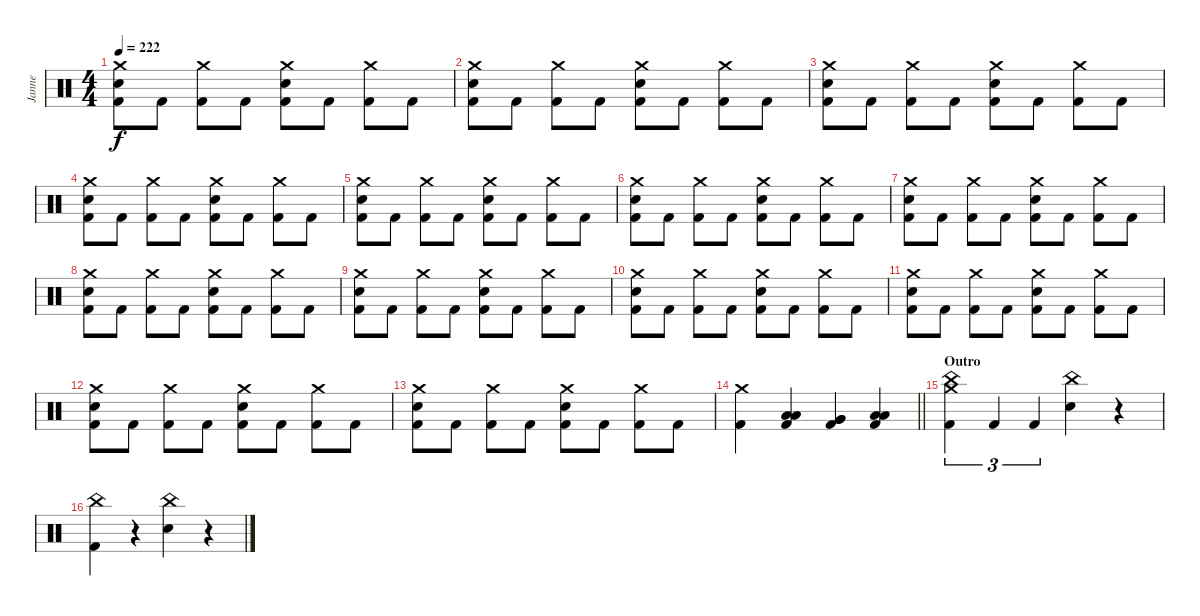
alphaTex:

\track ("Janne" "Janne") {instrument percussion}
\staff {score}
\articulation defaults
\ts (4 4)
\tempo 222
\clef neutral
\ks c
("Crash medium (hit)" "Electric Snare (hit)" "Kick (hit) 2").8{dy f} "Kick (hit) 2".8 ("Crash medium (hit)" "Kick (hit) 2").8 "Kick (hit) 2".8 ("Crash medium (hit)" "Electric Snare (hit)" "Kick (hit) 2").8 "Kick (hit) 2".8 ("Crash medium (hit)" "Kick (hit) 2").8 "Kick (hit) 2".8 |
("Crash medium (hit)" "Electric Snare (hit)" "Kick (hit) 2").8 "Kick (hit) 2".8 ("Crash medium (hit)" "Kick (hit) 2").8 "Kick (hit) 2".8 ("Crash medium (hit)" "Electric Snare (hit)" "Kick (hit) 2").8 "Kick (hit) 2".8 ("Crash medium (hit)" "Kick (hit) 2").8 "Kick (hit) 2".8 |
("Crash medium (hit)" "Electric Snare (hit)" "Kick (hit) 2").8 "Kick (hit) 2".8 ("Crash medium (hit)" "Kick (hit) 2").8 "Kick (hit) 2".8 ("Crash medium (hit)" "Electric Snare (hit)" "Kick (hit) 2").8 "Kick (hit) 2".8 ("Crash medium (hit)" "Kick (hit) 2").8 "Kick (hit) 2".8 |
("Crash medium (hit)" "Electric Snare (hit)" "Kick (hit) 2").8 "Kick (hit) 2".8 ("Crash medium (hit)" "Kick (hit) 2").8 "Kick (hit) 2".8 ("Crash medium (hit)" "Electric Snare (hit)" "Kick (hit) 2").8 "Kick (hit) 2".8 ("Crash medium (hit)" "Kick (hit) 2").8 "Kick (hit) 2".8 |
("Crash medium (hit)" "Electric Snare (hit)" "Kick (hit) 2").8 "Kick (hit) 2".8 ("Crash medium (hit)" "Kick (hit) 2").8 "Kick (hit) 2".8 ("Crash medium (hit)" "Electric Snare (hit)" "Kick (hit) 2").8 "Kick (hit) 2".8 ("Crash medium (hit)" "Kick (hit) 2").8 "Kick (hit) 2".8 |
("Crash medium (hit)" "Electric Snare (hit)" "Kick (hit) 2").8 "Kick (hit) 2".8 ("Crash medium (hit)" "Kick (hit) 2").8 "Kick (hit) 2".8 ("Crash medium (hit)" "Electric Snare (hit)" "Kick (hit) 2").8 "Kick (hit) 2".8 ("Crash medium (hit)" "Kick (hit) 2").8 "Kick (hit) 2".8 |
("Crash medium (hit)" "Electric Snare (hit)" "Kick (hit) 2").8 "Kick (hit) 2".8 ("Crash medium (hit)" "Kick (hit) 2").8 "Kick (hit) 2".8 ("Crash medium (hit)" "Electric Snare (hit)" "Kick (hit) 2").8 "Kick (hit) 2".8 ("Crash medium (hit)" "Kick (hit) 2").8 "Kick (hit) 2".8 |
("Crash medium (hit)" "Electric Snare (hit)" "Kick (hit) 2").8 "Kick (hit) 2".8 ("Crash medium (hit)" "Kick (hit) 2").8 "Kick (hit) 2".8 ("Crash medium (hit)" "Electric Snare (hit)" "Kick (hit) 2").8 "Kick (hit) 2".8 ("Crash medium (hit)" "Kick (hit) 2").8 "Kick (hit) 2".8 |
("Crash medium (hit)" "Electric Snare (hit)" "Kick (hit) 2").8 "Kick (hit) 2".8 ("Crash medium (hit)" "Kick (hit) 2").8 "Kick (hit) 2".8 ("Crash medium (hit)" "Electric Snare (hit)" "Kick (hit) 2").8 "Kick (hit) 2".8 ("Crash medium (hit)" "Kick (hit) 2").8 "Kick (hit) 2".8 |
("Crash medium (hit)" "Electric Snare (hit)" "Kick (hit) 2").8 "Kick (hit) 2".8 ("Crash medium (hit)" "Kick (hit) 2").8 "Kick (hit) 2".8 ("Crash medium (hit)" "Electric Snare (hit)" "Kick (hit) 2").8 "Kick (hit) 2".8 ("Crash medium (hit)" "Kick (hit) 2").8 "Kick (hit) 2".8 |
("Crash medium (hit)" "Electric Snare (hit)" "Kick (hit) 2").8 "Kick (hit) 2".8 ("Crash medium (hit)" "Kick (hit) 2").8 "Kick (hit) 2".8 ("Crash medium (hit)" "Electric Snare (hit)" "Kick (hit) 2").8 "Kick (hit) 2".8 ("Crash medium (hit)" "Kick (hit) 2").8 "Kick (hit) 2".8 |
("Crash medium (hit)" "Electric Snare (hit)" "Kick (hit) 2").8 "Kick (hit) 2".8 ("Crash medium (hit)" "Kick (hit) 2").8 "Kick (hit) 2".8 ("Crash medium (hit)" "Electric Snare (hit)" "Kick (hit) 2").8 "Kick (hit) 2".8 ("Crash medium (hit)" "Kick (hit) 2").8 "Kick (hit) 2".8 |
("Crash medium (hit)" "Electric Snare (hit)" "Kick (hit) 2").8 "Kick (hit) 2".8 ("Crash medium (hit)" "Kick (hit) 2").8 "Kick (hit) 2".8 ("Crash medium (hit)" "Electric Snare (hit)" "Kick (hit) 2").8 "Kick (hit) 2".8 ("Crash medium (hit)" "Kick (hit) 2").8 "Kick (hit) 2".8 |
\barLineRight lightlight
("Crash medium (hit)" "Kick (hit) 2").4 ("Low Tom (hit)" "Low Tom (hit)" "Kick (hit) 2").4 ("Very Low Tom (hit)" "Very Low Tom (hit)" "Kick (hit) 2").4 ("Low Floor Tom (hit)" "Low Floor Tom (hit)" "Kick (hit) 2").4 |
\section ("" "Outro")
("China (hit)" "Crash medium (hit)" "Kick (hit) 2").4{tu (3 2)} "Kick (hit) 2".4{tu (3 2)} "Kick (hit) 2".4{tu (3 2)} ("China (hit)" "Electric Snare (hit)").4 r.4 |
("China (hit)" "Kick (hit) 2").4 r.4 ("China (hit)" "Electric Snare (hit)").4 r.4
